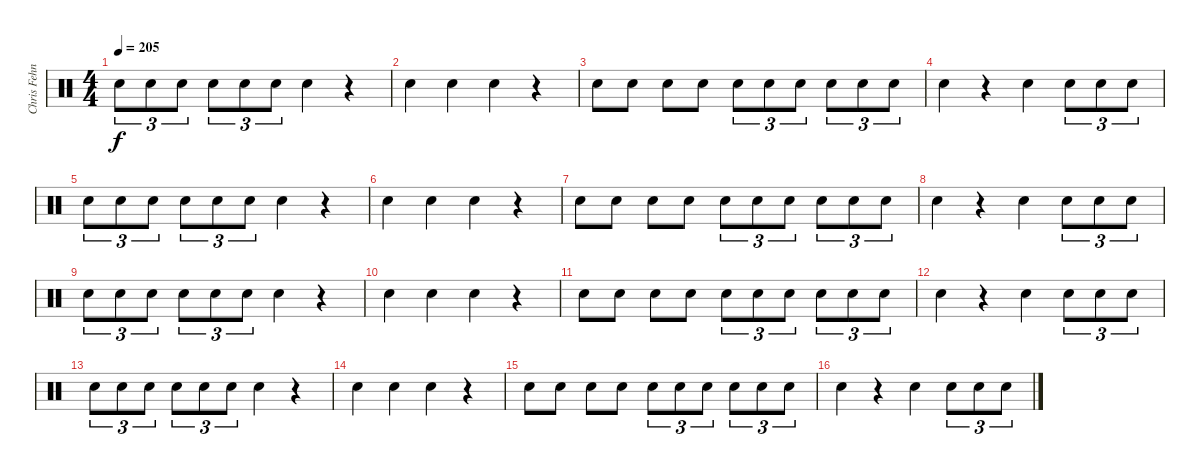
\track ("Chris Fehn" "Chris Fehn") {instrument percussion}
\staff {score}
\articulation defaults
\ts (4 4)
\tempo 205
\clef neutral
\ks c "Electric Snare (hit)".8{tu (3 2) dy f} "Electric Snare (hit)".8{tu (3 2)} "Electric Snare (hit)".8{tu (3 2)} "Electric Snare (hit)".8{tu (3 2)} "Electric Snare (hit)".8{tu (3 2)} "Electric Snare (hit)".8{tu (3 2)} "Electric Snare (hit)".4
r.4 |
"Electric Snare (hit)".4 "Electric Snare (hit)".4 "Electric Snare (hit)".4 r.4 |
"Electric Snare (hit)".8 "Electric Snare (hit)".8 "Electric Snare (hit)".8 "Electric Snare (hit)".8 "Electric Snare (hit)".8{tu (3 2)} "Electric Snare (hit)".8{tu (3 2)} "Electric Snare (hit)".8{tu (3 2)} "Electric Snare (hit)".8{tu (3 2)} "Electric Snare (hit)".8{tu (3 2)} "Electric Snare (hit)".8{tu (3 2)} |
"Electric Snare (hit)".4 r.4 "Electric Snare (hit)".4 "Electric Snare (hit)".8{tu (3 2)} "Electric Snare (hit)".8{tu (3 2)} "Electric Snare (hit)".8{tu (3 2)} |
"Electric Snare (hit)".8{tu (3 2)} "Electric Snare (hit)".8{tu (3 2)} "Electric Snare (hit)".8{tu (3 2)} "Electric Snare (hit)".8{tu (3 2)} "Electric Snare (hit)".8{tu (3 2)} "Electric Snare (hit)".8{tu (3 2)} "Electric Snare (hit)".4 r.4 |
"Electric Snare (hit)".4 "Electric Snare (hit)".4 "Electric Snare (hit)".4 r.4 |
"Electric Snare (hit)".8 "Electric Snare (hit)".8 "Electric Snare (hit)".8 "Electric Snare (hit)".8 "Electric Snare (hit)".8{tu (3 2)} "Electric Snare (hit)".8{tu (3 2)} "Electric Snare (hit)".8{tu (3 2)} "Electric Snare (hit)".8{tu (3 2)} "Electric Snare (hit)".8{tu (3 2)} "Electric Snare (hit)".8{tu (3 2)} |
"Electric Snare (hit)".4 r.4 "Electric Snare (hit)".4 "Electric Snare (hit)".8{tu (3 2)} "Electric Snare (hit)".8{tu (3 2)} "Electric Snare (hit)".8{tu (3 2)} |
"Electric Snare (hit)".8{tu (3 2)} "Electric Snare (hit)".8{tu (3 2)} "Electric Snare (hit)".8{tu (3 2)} "Electric Snare (hit)".8{tu (3 2)} "Electric Snare (hit)".8{tu (3 2)} "Electric Snare (hit)".8{tu (3 2)} "Electric Snare (hit)".4 r.4 |
"Electric Snare (hit)".4 "Electric Snare (hit)".4 "Electric Snare (hit)".4 r.4 |
"Electric Snare (hit)".8 "Electric Snare (hit)".8 "Electric Snare (hit)".8 "Electric Snare (hit)".8 "Electric Snare (hit)".8{tu (3 2)} "Electric Snare (hit)".8{tu (3 2)} "Electric Snare (hit)".8{tu (3 2)} "Electric Snare (hit)".8{tu (3 2)} "Electric Snare (hit)".8{tu (3 2)} "Electric Snare (hit)".8{tu (3 2)} |
"Electric Snare (hit)".4 r.4 "Electric Snare (hit)".4 "Electric Snare (hit)".8{tu (3 2)} "Electric Snare (hit)".8{tu (3 2)} "Electric Snare (hit)".8{tu (3 2)} |
"Electric Snare (hit)".8{tu (3 2)} "Electric Snare (hit)".8{tu (3 2)} "Electric Snare (hit)".8{tu (3 2)} "Electric Snare (hit)".8{tu (3 2)} "Electric Snare (hit)".8{tu (3 2)} "Electric Snare (hit)".8{tu (3 2)} "Electric Snare (hit)".4 r.4 |
"Electric Snare (hit)".4 "Electric Snare (hit)".4 "Electric Snare (hit)".4 r.4 |
"Electric Snare (hit)".8 "Electric Snare (hit)".8 "Electric Snare (hit)".8 "Electric Snare (hit)".8 "Electric Snare (hit)".8{tu (3 2)} "Electric Snare (hit)".8{tu (3 2)} "Electric Snare (hit)".8{tu (3 2)} "Electric Snare (hit)".8{tu (3 2)} "Electric Snare (hit)".8{tu (3 2)} "Electric Snare (hit)".8{tu (3 2)} |
"Electric Snare (hit)".4 r.4 "Electric Snare (hit)".4 "Electric Snare (hit)".8{tu (3 2)} "Electric Snare (hit)".8{tu (3 2)} "Electric Snare (hit)".8{tu (3 2)}
